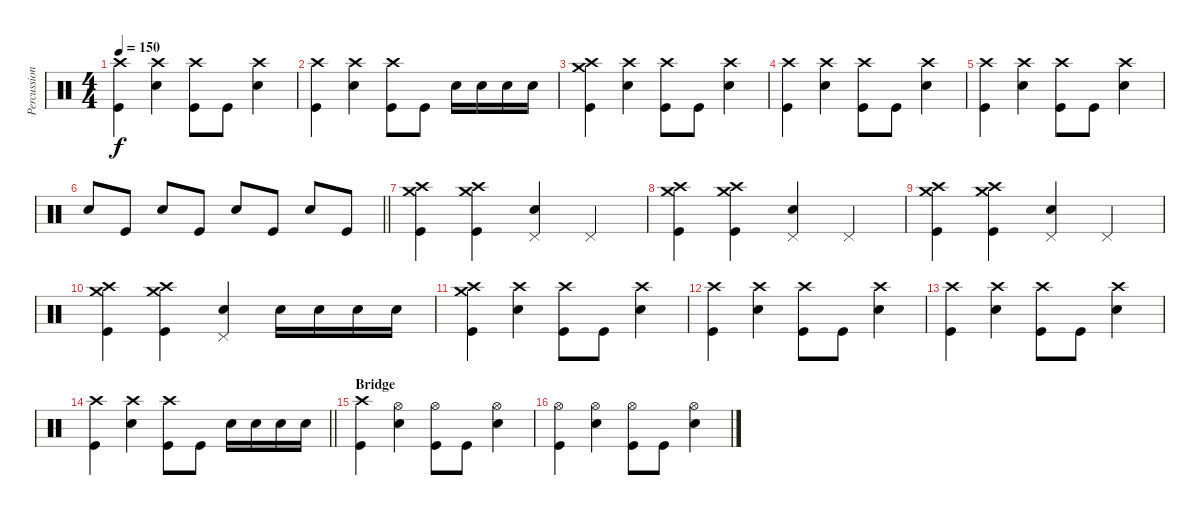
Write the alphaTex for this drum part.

\track ("Percussion" "Percussion") {instrument percussion}
\staff {score}
\articulation defaults
\ts (4 4)
\tempo 150
\clef neutral
\ks c
("Crash high (hit)" "Kick (hit)").4{dy f} ("Crash high (hit)" "Electric Snare (hit)").4 ("Crash high (hit)" "Kick (hit)").8 "Kick (hit)".8 ("Crash high (hit)" "Electric Snare (hit)").4 |
("Crash high (hit)" "Kick (hit)").4 ("Crash high (hit)" "Electric Snare (hit)").4 ("Crash high (hit)" "Kick (hit)").8 "Kick (hit)".8 "Electric Snare (hit)".16 "Electric Snare (hit)".16 "Electric Snare (hit)".16 "Electric Snare (hit)".16 |
("Crash high (hit)" "Crash medium (hit)" "Kick (hit)").4 ("Crash high (hit)" "Electric Snare (hit)").4 ("Crash high (hit)" "Kick (hit)").8 "Kick (hit)".8 ("Crash high (hit)" "Electric Snare (hit)").4 |
("Crash high (hit)" "Kick (hit)").4 ("Crash high (hit)" "Electric Snare (hit)").4 ("Crash high (hit)" "Kick (hit)").8 "Kick (hit)".8 ("Crash high (hit)" "Electric Snare (hit)").4 |
("Crash high (hit)" "Kick (hit)").4 ("Crash high (hit)" "Electric Snare (hit)").4 ("Crash high (hit)" "Kick (hit)").8 "Kick (hit)".8 ("Crash high (hit)" "Electric Snare (hit)").4 |
\barLineRight lightlight "Electric Snare (hit)".8 "Kick (hit)".8 "Electric Snare (hit)".8 "Kick (hit)".8 "Electric Snare (hit)".8 "Kick (hit)".8 "Electric Snare (hit)".8 "Kick (hit)".8
|
("Crash high (hit)" "Crash medium (hit)" "Kick (hit)").4 ("Crash high (hit)" "Crash medium (hit)" "Kick (hit)").4 ("Pedal Hi-Hat (hit)" "Electric Snare (hit)").4 "Pedal Hi-Hat (hit)".4 |
("Crash high (hit)" "Crash medium (hit)" "Kick (hit)").4 ("Crash high (hit)" "Crash medium (hit)" "Kick (hit)").4 ("Pedal Hi-Hat (hit)" "Electric Snare (hit)").4 "Pedal Hi-Hat (hit)".4 |
("Crash high (hit)" "Crash medium (hit)" "Kick (hit)").4 ("Crash high (hit)" "Crash medium (hit)" "Kick (hit)").4 ("Pedal Hi-Hat (hit)" "Electric Snare (hit)").4 "Pedal Hi-Hat (hit)".4 |
("Crash high (hit)" "Crash medium (hit)" "Kick (hit)").4 ("Crash high (hit)" "Crash medium (hit)" "Kick (hit)").4 ("Pedal Hi-Hat (hit)" "Electric Snare (hit)").4 "Electric Snare (hit)".16 "Electric Snare (hit)".16 "Electric Snare (hit)".16 "Electric Snare (hit)".16 |
("Crash high (hit)" "Crash medium (hit)" "Kick (hit)").4 ("Crash high (hit)" "Electric Snare (hit)").4 ("Crash high (hit)" "Kick (hit)").8 "Kick (hit)".8 ("Crash high (hit)" "Electric Snare (hit)").4 |
("Crash high (hit)" "Kick (hit)").4 ("Crash high (hit)" "Electric Snare (hit)").4 ("Crash high (hit)" "Kick (hit)").8 "Kick (hit)".8 ("Crash high (hit)" "Electric Snare (hit)").4 |
("Crash high (hit)" "Kick (hit)").4 ("Crash high (hit)" "Electric Snare (hit)").4 ("Crash high (hit)" "Kick (hit)").8 "Kick (hit)".8 ("Crash high (hit)" "Electric Snare (hit)").4 |
\barLineRight lightlight
("Crash high (hit)" "Kick (hit)").4 ("Crash high (hit)" "Electric Snare (hit)").4 ("Crash high (hit)" "Kick (hit)").8 "Kick (hit)".8 "Electric Snare (hit)".16 "Electric Snare (hit)".16 "Electric Snare (hit)".16 "Electric Snare (hit)".16 |
\section ("" "Bridge")
("Crash high (hit)" "Kick (hit)").4 ("Hi-Hat (open)" "Electric Snare (hit)").4 ("Hi-Hat (open)" "Kick (hit)").8 "Kick (hit)".8 ("Hi-Hat (open)" "Electric Snare (hit)").4 |
("Hi-Hat (open)" "Kick (hit)").4 ("Hi-Hat (open)" "Electric Snare (hit)").4 ("Hi-Hat (open)" "Kick (hit)").8 "Kick (hit)".8 ("Hi-Hat (open)" "Electric Snare (hit)").4
